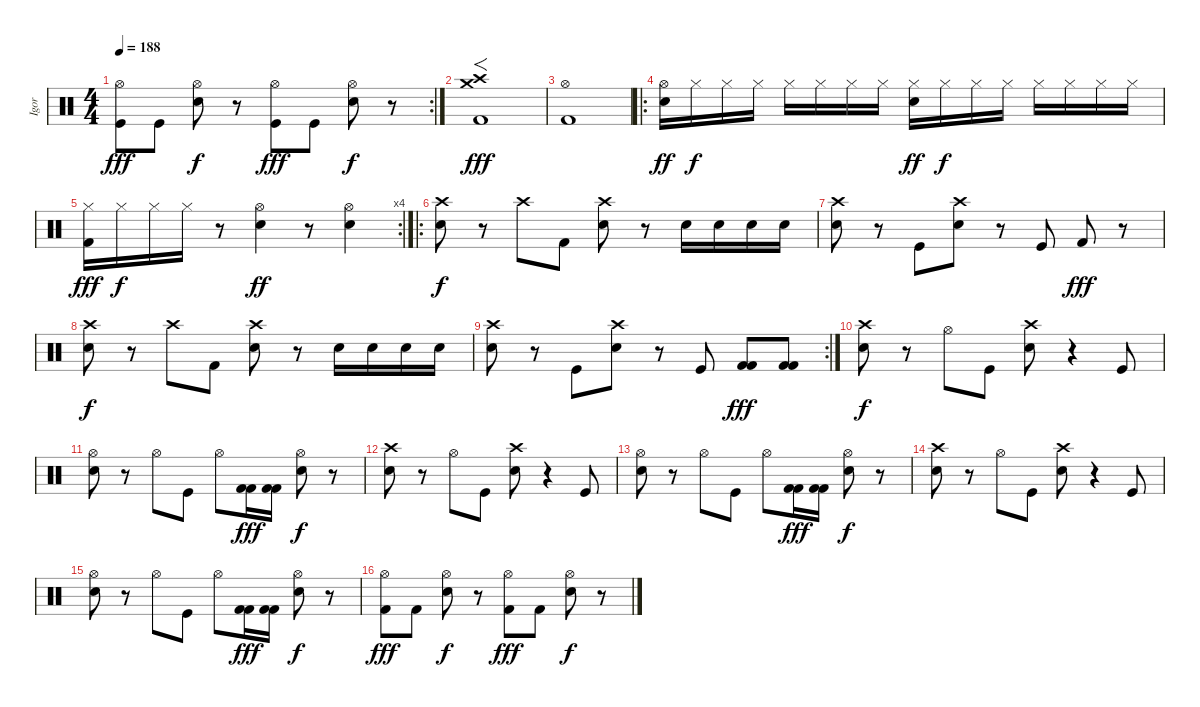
\track ("Igor" "Igor") {instrument percussion}
\staff {score}
\articulation defaults
\rc 2
\ts (4 4)
\tempo 188
\clef neutral
\ks c
("Hi-Hat (open)" "Kick (hit)").8{dy fff} "Kick (hit)".8 ("Hi-Hat (open)" "Snare (hit) 2").8{dy f} r.8 ("Hi-Hat (open)" "Kick (hit)").8{dy fff} "Kick (hit)".8 ("Hi-Hat (open)" "Snare (hit) 2").8{dy f} r.8 |
("Crash high (hit)" "Crash medium (hit)" "Kick (hit) 2").1{f dy fff} |
("Hi-Hat (open)" "Kick (hit) 2").1 |
\ro
("Hi-Hat (open)" "Snare (hit) 2").16{dy ff} "Hi-Hat (closed)".16{dy f} "Hi-Hat (closed)".16 "Hi-Hat (closed)".16 "Hi-Hat (closed)".16 "Hi-Hat (closed)".16 "Hi-Hat (closed)".16 "Hi-Hat (closed)".16 ("Hi-Hat (closed)" "Snare (hit) 2").16{dy ff} "Hi-Hat (closed)".16{dy f} "Hi-Hat (closed)".16 "Hi-Hat (closed)".16 "Hi-Hat (closed)".16 "Hi-Hat (closed)".16 "Hi-Hat (closed)".16 "Hi-Hat (closed)".16 |
\rc 4
("Hi-Hat (closed)" "Kick (hit) 2").16{dy fff} "Hi-Hat (closed)".16{dy f} "Hi-Hat (closed)".16 "Hi-Hat (closed)".16 r.8 ("Hi-Hat (open)" "Snare (hit) 2").4{dy ff} r.8 ("Hi-Hat (open)" "Snare (hit) 2").4 |
\ro
("Crash high (hit)" "Snare (hit) 2").8{dy f} r.8 "Crash high (hit)".8 "Kick (hit) 2".8 ("Crash high (hit)" "Snare (hit) 2").8 r.8 "Snare (hit) 2".16 "Snare (hit) 2".16 "Snare (hit) 2".16 "Snare (hit) 2".16 |
("Crash high (hit)" "Snare (hit) 2").8 r.8 "Kick (hit)".8 ("Crash high (hit)" "Snare (hit) 2").8 r.8 "Kick (hit)".8 "Kick (hit) 2".8{dy fff} r.8 |
("Crash high (hit)" "Snare (hit) 2").8{dy f} r.8 "Crash high (hit)".8 "Kick (hit) 2".8 ("Crash high (hit)" "Snare (hit) 2").8 r.8 "Snare (hit) 2".16 "Snare (hit) 2".16 "Snare (hit) 2".16 "Snare (hit) 2".16 |
\rc 2
("Crash high (hit)" "Snare (hit) 2").8 r.8 "Kick (hit)".8 ("Crash high (hit)" "Snare (hit) 2").8 r.8 "Kick (hit)".8 ("Kick (hit) 2" "Kick (hit) 2").8{dy fff} ("Kick (hit) 2" "Kick (hit) 2").8 |
("Crash high (hit)" "Snare (hit) 2").8{dy f} r.8 "Hi-Hat (open)".8 "Kick (hit)".8 ("Crash high (hit)" "Snare (hit) 2").8 r.4 "Kick (hit)".8 |
("Hi-Hat (open)" "Snare (hit) 2").8 r.8 "Hi-Hat (open)".8 "Kick (hit)".8 "Hi-Hat (open)".8 ("Kick (hit) 2" "Kick (hit) 2").16{dy fff} ("Kick (hit) 2" "Kick (hit) 2").16 ("Hi-Hat (open)" "Snare (hit) 2").8{dy f} r.8 |
("Crash high (hit)" "Snare (hit) 2").8 r.8 "Hi-Hat (open)".8 "Kick (hit)".8 ("Crash high (hit)" "Snare (hit) 2").8 r.4 "Kick (hit)".8 |
("Hi-Hat (open)" "Snare (hit) 2").8 r.8 "Hi-Hat (open)".8 "Kick (hit)".8 "Hi-Hat (open)".8 ("Kick (hit) 2" "Kick (hit) 2").16{dy fff} ("Kick (hit) 2" "Kick (hit) 2").16 ("Hi-Hat (open)" "Snare (hit) 2").8{dy f} r.8 |
("Crash high (hit)" "Snare (hit) 2").8 r.8 "Hi-Hat (open)".8 "Kick (hit)".8 ("Crash high (hit)" "Snare (hit) 2").8 r.4 "Kick (hit)".8 |
("Hi-Hat (open)" "Snare (hit) 2").8 r.8 "Hi-Hat (open)".8 "Kick (hit)".8 "Hi-Hat (open)".8 ("Kick (hit) 2" "Kick (hit) 2").16{dy fff} ("Kick (hit) 2" "Kick (hit) 2").16 ("Hi-Hat (open)" "Snare (hit) 2").8{dy f} r.8 |
("Hi-Hat (open)" "Kick (hit) 2").8{dy fff} "Kick (hit) 2".8 ("Hi-Hat (open)" "Snare (hit) 2").8{dy f} r.8 ("Hi-Hat (open)" "Kick (hit) 2").8{dy fff} "Kick (hit) 2".8 ("Hi-Hat (open)" "Snare (hit) 2").8{dy f} r.8
